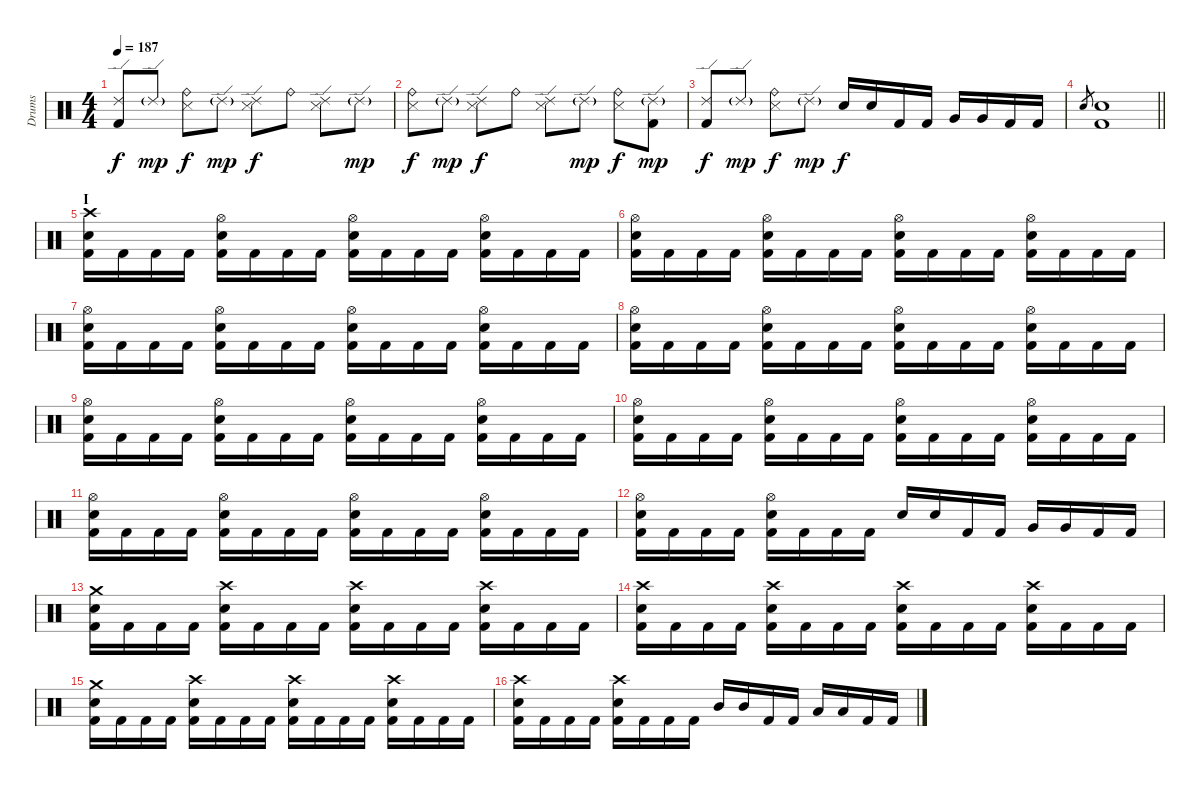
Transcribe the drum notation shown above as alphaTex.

\track ("Drums" "Drums") {instrument percussion}
\staff {score}
\articulation defaults
\ts (4 4)
\tempo 187
\clef neutral
\ks c
("Ride (edge) 2" "Kick (hit) 2").8{dy f} "Ride (edge) 2"{g}.8{dy mp} ("Ride (bell)" "Snare (side stick) 3").8{dy f} "Ride (edge) 2"{g}.8{dy mp} ("Ride (edge) 2" "Snare (side stick) 3").8{dy f} "Ride (bell)".8 ("Ride (edge) 2" "Snare (side stick) 3").8 "Ride (edge) 2"{g}.8{dy mp} |
("Ride (bell)" "Snare (side stick) 3").8{dy f} "Ride (edge) 2"{g}.8{dy mp} ("Ride (edge) 2" "Snare (side stick) 3").8{dy f} "Ride (bell)".8 ("Ride (edge) 2" "Snare (side stick) 3").8 "Ride (edge) 2"{g}.8{dy mp} ("Ride (bell)" "Snare (side stick) 3").8{dy f} ("Ride (edge) 2"{g} "Kick (hit) 2").8{dy mp} |
("Ride (edge) 2" "Kick (hit) 2").8{dy f} "Ride (edge) 2"{g}.8{dy mp} ("Ride (bell)" "Snare (side stick) 3").8{dy f} "Ride (edge) 2"{g}.8{dy mp} "Electric Snare (hit)".16{dy f} "Electric Snare (hit)".16 "Kick (hit) 2".16 "Kick (hit) 2".16 "Very Low Tom (hit)".16 "Very Low Tom (hit)".16 "Kick (hit) 2".16 "Kick (hit) 2".16 |
\barLineRight lightlight "Electric Snare (hit)".8{gr}
("Electric Snare (hit)" "Kick (hit) 2").1 |
\section ("" "I")
("Crash high (hit)" "Electric Snare (hit)" "Kick (hit) 2").16 "Kick (hit) 2".16 "Kick (hit) 2".16 "Kick (hit) 2".16 ("Hi-Hat (open)" "Electric Snare (hit)" "Kick (hit) 2").16 "Kick (hit) 2".16 "Kick (hit) 2".16 "Kick (hit) 2".16 ("Hi-Hat (open)" "Electric Snare (hit)" "Kick (hit) 2").16 "Kick (hit) 2".16 "Kick (hit) 2".16 "Kick (hit) 2".16 ("Hi-Hat (open)" "Electric Snare (hit)" "Kick (hit) 2").16 "Kick (hit) 2".16 "Kick (hit) 2".16 "Kick (hit) 2".16 |
("Hi-Hat (open)" "Electric Snare (hit)" "Kick (hit) 2").16 "Kick (hit) 2".16 "Kick (hit) 2".16 "Kick (hit) 2".16 ("Hi-Hat (open)" "Electric Snare (hit)" "Kick (hit) 2").16 "Kick (hit) 2".16 "Kick (hit) 2".16 "Kick (hit) 2".16 ("Hi-Hat (open)" "Electric Snare (hit)" "Kick (hit) 2").16 "Kick (hit) 2".16 "Kick (hit) 2".16 "Kick (hit) 2".16 ("Hi-Hat (open)" "Electric Snare (hit)" "Kick (hit) 2").16 "Kick (hit) 2".16 "Kick (hit) 2".16 "Kick (hit) 2".16 |
("Hi-Hat (open)" "Electric Snare (hit)" "Kick (hit) 2").16 "Kick (hit) 2".16 "Kick (hit) 2".16 "Kick (hit) 2".16 ("Hi-Hat (open)" "Electric Snare (hit)" "Kick (hit) 2").16 "Kick (hit) 2".16 "Kick (hit) 2".16 "Kick (hit) 2".16 ("Hi-Hat (open)" "Electric Snare (hit)" "Kick (hit) 2").16 "Kick (hit) 2".16 "Kick (hit) 2".16 "Kick (hit) 2".16 ("Hi-Hat (open)" "Electric Snare (hit)" "Kick (hit) 2").16 "Kick (hit) 2".16 "Kick (hit) 2".16 "Kick (hit) 2".16 |
("Hi-Hat (open)" "Electric Snare (hit)" "Kick (hit) 2").16 "Kick (hit) 2".16 "Kick (hit) 2".16 "Kick (hit) 2".16 ("Hi-Hat (open)" "Electric Snare (hit)" "Kick (hit) 2").16 "Kick (hit) 2".16 "Kick (hit) 2".16 "Kick (hit) 2".16 ("Hi-Hat (open)" "Electric Snare (hit)" "Kick (hit) 2").16 "Kick (hit) 2".16 "Kick (hit) 2".16 "Kick (hit) 2".16 ("Hi-Hat (open)" "Electric Snare (hit)" "Kick (hit) 2").16 "Kick (hit) 2".16 "Kick (hit) 2".16 "Kick (hit) 2".16 |
("Hi-Hat (open)" "Electric Snare (hit)" "Kick (hit) 2").16 "Kick (hit) 2".16 "Kick (hit) 2".16 "Kick (hit) 2".16 ("Hi-Hat (open)" "Electric Snare (hit)" "Kick (hit) 2").16 "Kick (hit) 2".16 "Kick (hit) 2".16 "Kick (hit) 2".16 ("Hi-Hat (open)" "Electric Snare (hit)" "Kick (hit) 2").16 "Kick (hit) 2".16 "Kick (hit) 2".16 "Kick (hit) 2".16 ("Hi-Hat (open)" "Electric Snare (hit)" "Kick (hit) 2").16 "Kick (hit) 2".16 "Kick (hit) 2".16 "Kick (hit) 2".16 |
("Hi-Hat (open)" "Electric Snare (hit)" "Kick (hit) 2").16 "Kick (hit) 2".16 "Kick (hit) 2".16 "Kick (hit) 2".16 ("Hi-Hat (open)" "Electric Snare (hit)" "Kick (hit) 2").16 "Kick (hit) 2".16 "Kick (hit) 2".16 "Kick (hit) 2".16 ("Hi-Hat (open)" "Electric Snare (hit)" "Kick (hit) 2").16 "Kick (hit) 2".16 "Kick (hit) 2".16 "Kick (hit) 2".16 ("Hi-Hat (open)" "Electric Snare (hit)" "Kick (hit) 2").16 "Kick (hit) 2".16 "Kick (hit) 2".16 "Kick (hit) 2".16 |
("Hi-Hat (open)" "Electric Snare (hit)" "Kick (hit) 2").16 "Kick (hit) 2".16 "Kick (hit) 2".16 "Kick (hit) 2".16 ("Hi-Hat (open)" "Electric Snare (hit)" "Kick (hit) 2").16 "Kick (hit) 2".16 "Kick (hit) 2".16 "Kick (hit) 2".16 ("Hi-Hat (open)" "Electric Snare (hit)" "Kick (hit) 2").16 "Kick (hit) 2".16 "Kick (hit) 2".16 "Kick (hit) 2".16 ("Hi-Hat (open)" "Electric Snare (hit)" "Kick (hit) 2").16 "Kick (hit) 2".16 "Kick (hit) 2".16 "Kick (hit) 2".16 |
("Hi-Hat (open)" "Electric Snare (hit)" "Kick (hit) 2").16 "Kick (hit) 2".16 "Kick (hit) 2".16 "Kick (hit) 2".16 ("Hi-Hat (open)" "Electric Snare (hit)" "Kick (hit) 2").16 "Kick (hit) 2".16 "Kick (hit) 2".16 "Kick (hit) 2".16 "Electric Snare (hit)".16 "Electric Snare (hit)".16 "Kick (hit) 2".16 "Kick (hit) 2".16 "Very Low Tom (hit)".16 "Very Low Tom (hit)".16 "Kick (hit) 2".16 "Kick (hit) 2".16 |
("Crash medium (hit)" "Electric Snare (hit)" "Kick (hit) 2").16 "Kick (hit) 2".16 "Kick (hit) 2".16 "Kick (hit) 2".16 ("Crash high (hit)" "Electric Snare (hit)" "Kick (hit) 2").16 "Kick (hit) 2".16 "Kick (hit) 2".16 "Kick (hit) 2".16 ("Crash high (hit)" "Electric Snare (hit)" "Kick (hit) 2").16 "Kick (hit) 2".16 "Kick (hit) 2".16 "Kick (hit) 2".16 ("Crash high (hit)" "Electric Snare (hit)" "Kick (hit) 2").16 "Kick (hit) 2".16 "Kick (hit) 2".16 "Kick (hit) 2".16 |
("Crash high (hit)" "Electric Snare (hit)" "Kick (hit) 2").16 "Kick (hit) 2".16 "Kick (hit) 2".16 "Kick (hit) 2".16 ("Crash high (hit)" "Electric Snare (hit)" "Kick (hit) 2").16 "Kick (hit) 2".16 "Kick (hit) 2".16 "Kick (hit) 2".16 ("Crash high (hit)" "Electric Snare (hit)" "Kick (hit) 2").16 "Kick (hit) 2".16 "Kick (hit) 2".16 "Kick (hit) 2".16 ("Crash high (hit)" "Electric Snare (hit)" "Kick (hit) 2").16 "Kick (hit) 2".16 "Kick (hit) 2".16 "Kick (hit) 2".16 |
("Crash medium (hit)" "Electric Snare (hit)" "Kick (hit) 2").16 "Kick (hit) 2".16 "Kick (hit) 2".16 "Kick (hit) 2".16 ("Crash high (hit)" "Electric Snare (hit)" "Kick (hit) 2").16 "Kick (hit) 2".16 "Kick (hit) 2".16 "Kick (hit) 2".16 ("Crash high (hit)" "Electric Snare (hit)" "Kick (hit) 2").16 "Kick (hit) 2".16 "Kick (hit) 2".16 "Kick (hit) 2".16 ("Crash high (hit)" "Electric Snare (hit)" "Kick (hit) 2").16 "Kick (hit) 2".16 "Kick (hit) 2".16 "Kick (hit) 2".16 |
("Crash high (hit)" "Electric Snare (hit)" "Kick (hit) 2").16 "Kick (hit) 2".16 "Kick (hit) 2".16 "Kick (hit) 2".16 ("Crash high (hit)" "Electric Snare (hit)" "Kick (hit) 2").16 "Kick (hit) 2".16 "Kick (hit) 2".16 "Kick (hit) 2".16 "Mid Tom (hit)".16 "Mid Tom (hit)".16 "Kick (hit) 2".16 "Kick (hit) 2".16 "Low Tom (hit)".16 "Low Tom (hit)".16 "Kick (hit) 2".16 "Kick (hit) 2".16
